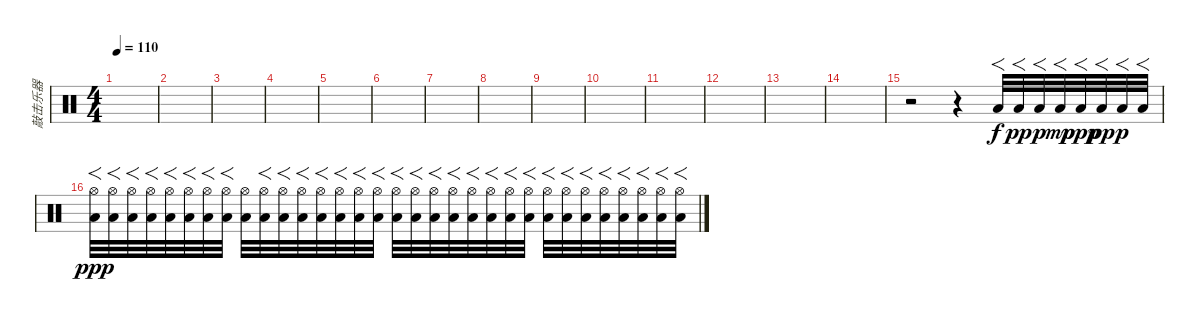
\track ("敲击乐器" "敲击乐器") {instrument percussion}
\staff {score}
\articulation defaults
\ts (4 4)
\tempo 110
\clef neutral
\ks c
|
|
|
|
|
|
|
|
|
|
|
|
|
|
r.2 r.4 "Low Floor Tom (hit)".32{f} "Low Floor Tom (hit)".32{f dy pp} "Low Floor Tom (hit)".32{f dy p} "Low Floor Tom (hit)".32{f dy mp} "Low Floor Tom (hit)".32{f dy ppp} "Low Floor Tom (hit)".32{f dy pp} "Low Floor Tom (hit)".32{f dy p} "Low Floor Tom (hit)".32{f} |
("Low Floor Tom (hit)" "Hi-Hat (open)").32{f dy ppp} ("Low Floor Tom (hit)" "Hi-Hat (open)").32{f} ("Low Floor Tom (hit)" "Hi-Hat (open)").32{f} ("Low Floor Tom (hit)" "Hi-Hat (open)").32{f} ("Low Floor Tom (hit)" "Hi-Hat (open)").32{f} ("Low Floor Tom (hit)" "Hi-Hat (open)").32{f} ("Low Floor Tom (hit)" "Hi-Hat (open)").32{f} ("Low Floor Tom (hit)" "Hi-Hat (open)").32{f} ("Low Floor Tom (hit)" "Hi-Hat (open)").32 ("Low Floor Tom (hit)" "Hi-Hat (open)").32{f} ("Low Floor Tom (hit)" "Hi-Hat (open)").32{f} ("Low Floor Tom (hit)" "Hi-Hat (open)").32{f} ("Low Floor Tom (hit)" "Hi-Hat (open)").32{f} ("Low Floor Tom (hit)" "Hi-Hat (open)").32{f} ("Low Floor Tom (hit)" "Hi-Hat (open)").32{f} ("Low Floor Tom (hit)" "Hi-Hat (open)").32{f} ("Low Floor Tom (hit)" "Hi-Hat (open)").32{f} ("Low Floor Tom (hit)" "Hi-Hat (open)").32{f} ("Low Floor Tom (hit)" "Hi-Hat (open)").32{f} ("Low Floor Tom (hit)" "Hi-Hat (open)").32{f} ("Low Floor Tom (hit)" "Hi-Hat (open)").32{f} ("Low Floor Tom (hit)" "Hi-Hat (open)").32{f} ("Low Floor Tom (hit)" "Hi-Hat (open)").32{f} ("Low Floor Tom (hit)" "Hi-Hat (open)").32{f} ("Low Floor Tom (hit)" "Hi-Hat (open)").32{f} ("Low Floor Tom (hit)" "Hi-Hat (open)").32{f} ("Low Floor Tom (hit)" "Hi-Hat (open)").32{f} ("Low Floor Tom (hit)" "Hi-Hat (open)").32{f} ("Low Floor Tom (hit)" "Hi-Hat (open)").32{f} ("Low Floor Tom (hit)" "Hi-Hat (open)").32{f} ("Low Floor Tom (hit)" "Hi-Hat (open)").32{f} ("Low Floor Tom (hit)" "Hi-Hat (open)").32{f}
